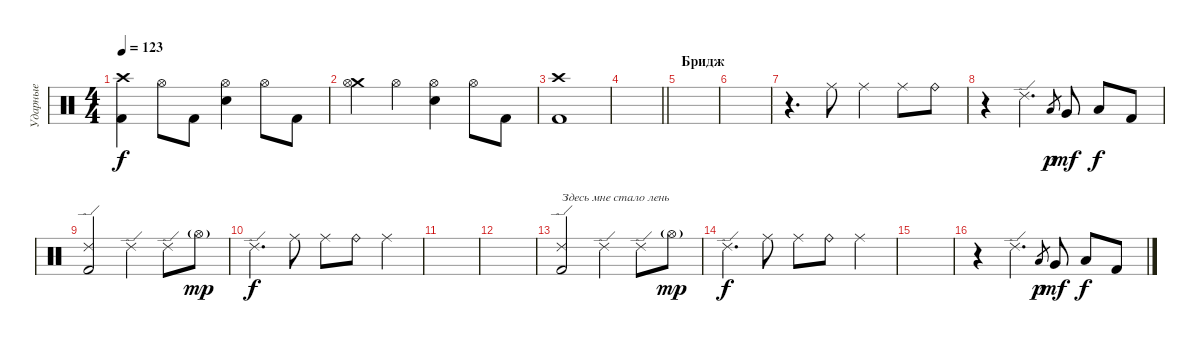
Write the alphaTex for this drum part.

\track ("Ударные" "Ударные") {instrument percussion}
\staff {score}
\articulation defaults
\ts (4 4)
\tempo 123
\clef neutral
\ks c
("Kick (hit) 2" "Crash high (hit)").4{dy f} "Hi-Hat (open)".8 "Kick (hit) 2".8 ("Electric Snare (hit)" "Hi-Hat (open)").4 "Hi-Hat (open)".8 "Kick (hit) 2".8 |
("Crash medium (hit)" "Hi-Hat (open)").4 "Hi-Hat (open)".4 ("Electric Snare (hit)" "Hi-Hat (open)").4 "Hi-Hat (open)".8 "Kick (hit) 2".8 |
("Kick (hit) 2" "Crash high (hit)").1 |
\barLineRight lightlight
|
\section ("" "Бридж")
|
|
r.4{d} "Ride (middle)".8 "Ride (middle)".4 "Ride (middle)".8 "Ride (bell)".8 |
r.4 "Ride (edge) 2".4{d} "Low Tom (hit)".8{gr dy p} "Very Low Tom (hit)".8{dy mf} "Low Tom (hit)".8{dy f} "Kick (hit) 2".8 |
("Kick (hit) 2" "Ride (edge) 2").2 "Ride (edge) 2".4 "Ride (edge) 2".8 "Hi-Hat (open)"{g}.8{dy mp} |
"Ride (edge) 2".4{d dy f} "Ride (middle)".8 "Ride (middle)".8 "Ride (bell)".8 "Ride (middle)".4 |
|
|
("Kick (hit) 2" "Ride (edge) 2").2{txt "Здесь мне стало лень"} "Ride (edge) 2".4 "Ride (edge) 2".8 "Hi-Hat (open)"{g}.8{dy mp} |
"Ride (edge) 2".4{d dy f} "Ride (middle)".8 "Ride (middle)".8 "Ride (bell)".8 "Ride (middle)".4 |
|
r.4 "Ride (edge) 2".4{d} "Low Tom (hit)".8{gr dy p} "Very Low Tom (hit)".8{dy mf} "Low Tom (hit)".8{dy f} "Kick (hit) 2".8
